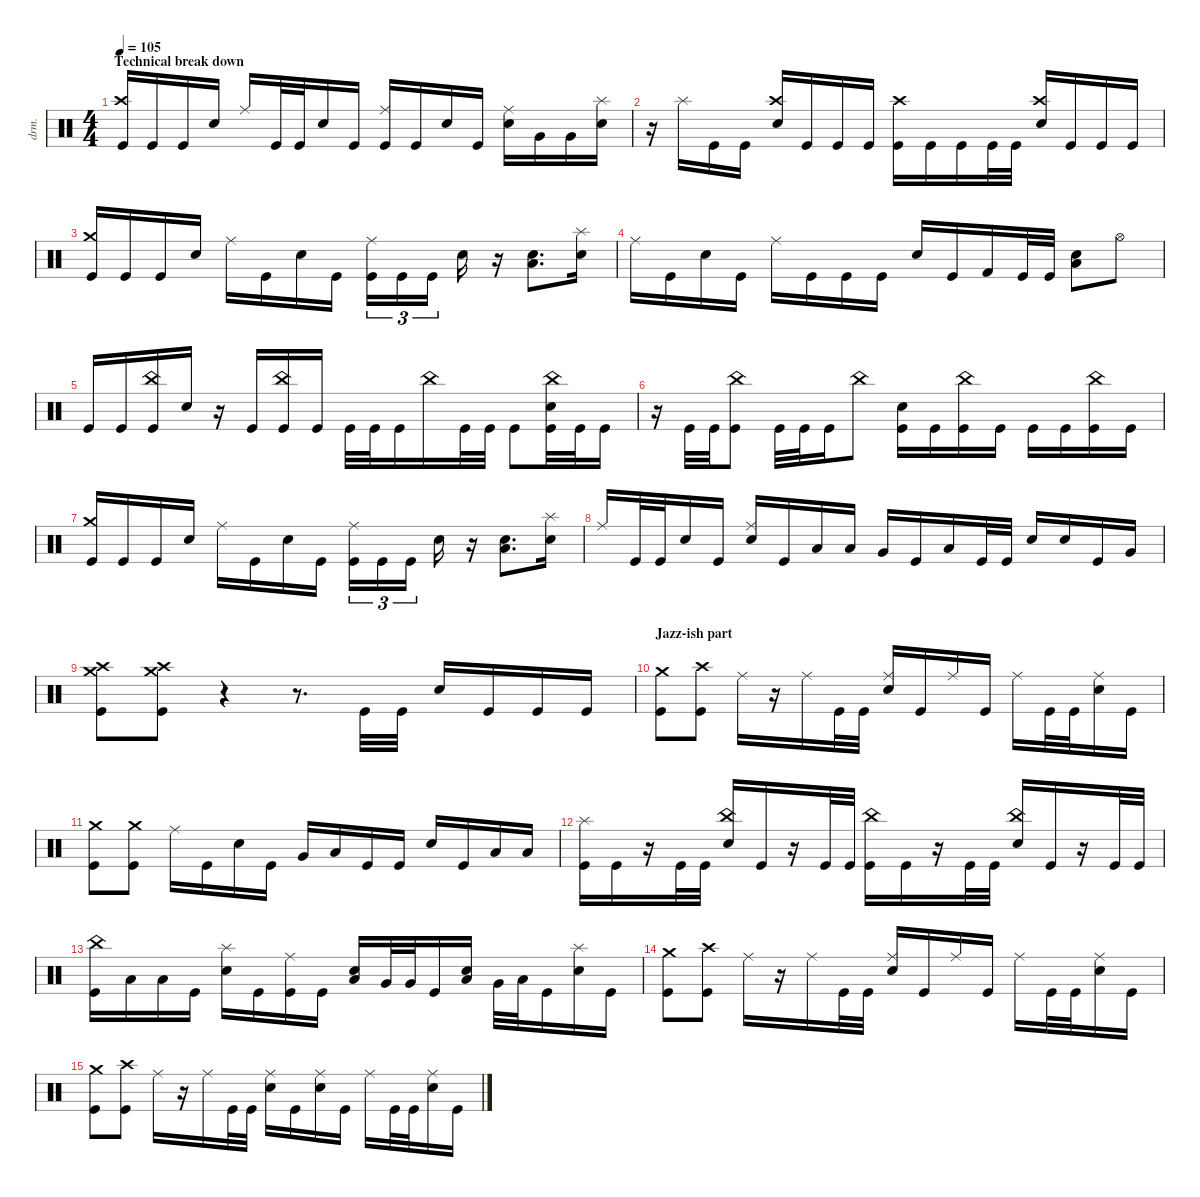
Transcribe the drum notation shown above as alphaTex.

\defaultSystemsLayout 4
\hideDynamics
\bracketExtendMode nobrackets
\otherSystemsTrackNameOrientation horizontal
\track ("Drumkit" "drm.") {mute instrument percussion}
\staff {score}
\articulation defaults
\ts (4 4)
\section ("" "Technical break down")
\tempo 105
\clef neutral
\ks c
("Crash high (hit)" "Kick (hit)").16{dy mf beam Up} "Kick (hit)".16{beam Up} "Kick (hit)".16{beam Up} "Electric Snare (hit)".16{beam Up} "Ride (middle)".16{beam Up} "Kick (hit)".32{beam Up} "Kick (hit)".32{beam Up} "Electric Snare (hit)".16{beam Up} "Kick (hit)".16{beam Up} ("Kick (hit)" "Ride (middle)").16{beam Up} "Kick (hit)".16{beam Up} "Electric Snare (hit)".16{beam Up} "Kick (hit)".16{beam Up} ("Electric Snare (hit)" "Ride (middle)").16{beam Down} "Very Low Tom (hit)".16{beam Down} "Very Low Tom (hit)".16{beam Down} ("Splash (hit)" "Electric Snare (hit)").16{beam Down} |
r.16{beam Down} "Splash (hit)".16{beam Down} "Kick (hit)".16{beam Down} "Kick (hit)".16{beam Down} ("Crash high (hit)" "Electric Snare (hit)").16{beam Up} "Kick (hit)".16{beam Up} "Kick (hit)".16{beam Up} "Kick (hit)".16{beam Up} ("Crash high (hit)" "Kick (hit)").16{beam Down} "Kick (hit)".16{beam Down} "Kick (hit)".16{beam Down} "Kick (hit)".32{beam Down} "Kick (hit)".32{beam Down} ("Crash high (hit)" "Electric Snare (hit)").16{beam Up} "Kick (hit)".16{beam Up} "Kick (hit)".16{beam Up} "Kick (hit)".16{beam Up} |
("Crash medium (hit)" "Kick (hit)").16{beam Up} "Kick (hit)".16{beam Up} "Kick (hit)".16{beam Up} "Electric Snare (hit)".16{beam Up} "Ride (middle)".16{beam Down} "Kick (hit)".16{beam Down} "Electric Snare (hit)".16{beam Down} "Kick (hit)".16{beam Down} ("Ride (middle)" "Kick (hit)").16{tu (3 2) beam Down} "Kick (hit)".16{tu (3 2) beam Down} "Kick (hit)".16{tu (3 2) beam Down} "Electric Snare (hit)".16{beam Down} r.16{beam Down} ("Electric Snare (hit)" "Low Floor Tom (hit)").8{d beam Down} ("Splash (hit)" "Electric Snare (hit)").16{beam Down} |
"Ride (middle)".16{beam Down} "Kick (hit)".16{beam Down} "Electric Snare (hit)".16{beam Down} "Kick (hit)".16{beam Down} "Ride (middle)".16{beam Down} "Kick (hit)".16{beam Down} "Kick (hit)".16{beam Down} "Kick (hit)".16{beam Down} "Electric Snare (hit)".16{beam Up} "Kick (hit)".16{beam Up} "Kick (hit) 2".16{beam Up} "Kick (hit)".32{beam Up} "Kick (hit)".32{beam Up} ("Electric Snare (hit)" "Low Floor Tom (hit)").8{beam Down} "Hi-Hat (open)".8{beam Down} |
"Kick (hit)".16{beam Up} "Kick (hit)".16{beam Up} ("Kick (hit)" "China (hit)").16{beam Up} "Electric Snare (hit)".16{beam Up} r.16{beam Up} "Kick (hit)".16{beam Down} ("Kick (hit)" "China (hit)").16{beam Down} "Kick (hit)".16{beam Down} "Kick (hit)".32{beam Down} "Kick (hit)".32{beam Down} "Kick (hit)".16{beam Down} "China (hit)".16{beam Down} "Kick (hit)".32{beam Down} "Kick (hit)".32{beam Down} "Kick (hit)".8{beam Down} ("Kick (hit)" "China (hit)" "Electric Snare (hit)").32{beam Down} "Kick (hit)".32{beam Down} "Kick (hit)".16{beam Down} |
r.16{beam Down} "Kick (hit)".32{beam Down} "Kick (hit)".32{beam Down} ("Kick (hit)" "China (hit)").8{beam Down} "Kick (hit)".32{beam Down} "Kick (hit)".32{beam Down} "Kick (hit)".16{beam Down} "China (hit)".8{beam Down} ("Kick (hit)" "Electric Snare (hit)").16{beam Down} "Kick (hit)".16{beam Down} ("Kick (hit)" "China (hit)").16{beam Down} "Kick (hit)".16{beam Down} "Kick (hit)".16{beam Down} "Kick (hit)".16{beam Down} ("Kick (hit)" "China (hit)").16{beam Down} "Kick (hit)".16{beam Down} |
("Crash medium (hit)" "Kick (hit)").16{beam Up} "Kick (hit)".16{beam Up} "Kick (hit)".16{beam Up} "Electric Snare (hit)".16{beam Up} "Ride (middle)".16{beam Down} "Kick (hit)".16{beam Down} "Electric Snare (hit)".16{beam Down} "Kick (hit)".16{beam Down} ("Ride (middle)" "Kick (hit)").16{tu (3 2) beam Down} "Kick (hit)".16{tu (3 2) beam Down} "Kick (hit)".16{tu (3 2) beam Down} "Electric Snare (hit)".16{beam Down} r.16{beam Down} ("Electric Snare (hit)" "Low Floor Tom (hit)").8{d beam Down} ("Splash (hit)" "Electric Snare (hit)").16{beam Down} |
"Ride (middle)".16{beam Up} "Kick (hit)".32{beam Up} "Kick (hit)".32{beam Up} "Electric Snare (hit)".16{beam Up} "Kick (hit)".16{beam Up} ("Ride (middle)" "Electric Snare (hit)").16{beam Up} "Kick (hit)".16{beam Up} "Low Tom (hit)".16{beam Up} "Low Tom (hit)".16{beam Up} "Very Low Tom (hit)".16{beam Up} "Kick (hit)".16{beam Up} "Low Floor Tom (hit)".16{beam Up} "Kick (hit)".32{beam Up} "Kick (hit)".32{beam Up} "Electric Snare (hit)".16{beam Up} "Electric Snare (hit)".16{beam Up} "Kick (hit)".16{beam Up} "Very Low Tom (hit)".16{beam Up} |
("Crash high (hit)" "Crash medium (hit)" "Kick (hit)").8{beam Down} ("Crash high (hit)" "Crash medium (hit)" "Kick (hit)").8{beam Down} r.4{beam Down} r.8{d beam Down} "Kick (hit)".32{beam Up} "Kick (hit)".32{beam Up} "Electric Snare (hit)".16{beam Up} "Kick (hit)".16{beam Up} "Kick (hit)".16{beam Up} "Kick (hit)".16{beam Up} |
\section ("" "Jazz-ish part")
("Crash medium (hit)" "Kick (hit)").8{beam Down} ("Kick (hit)" "Crash high (hit)").8{beam Down} "Ride (middle)".16{beam Down} r.16{beam Down} "Ride (middle)".16{beam Down} "Kick (hit)".32{beam Down} "Kick (hit)".32{beam Down} ("Ride (middle)" "Electric Snare (hit)").16{beam Up} "Kick (hit)".16{beam Up} "Ride (middle)".16{beam Up} "Kick (hit)".16{beam Up} "Ride (middle)".16{beam Down} "Kick (hit)".32{beam Down} "Kick (hit)".32{beam Down} ("Ride (middle)" "Electric Snare (hit)").16{beam Down} "Kick (hit)".16{beam Down} |
("Crash medium (hit)" "Kick (hit)").8{beam Down} ("Kick (hit)" "Crash medium (hit)").8{beam Down} "Ride (middle)".16{beam Down} "Kick (hit)".16{beam Down} "Electric Snare (hit)".16{beam Down} "Kick (hit)".16{beam Down} "Very Low Tom (hit)".16{beam Up} "Low Tom (hit)".16{beam Up} "Kick (hit)".16{beam Up} "Kick (hit)".16{beam Up} "Electric Snare (hit)".16{beam Up} "Kick (hit)".16{beam Up} "Low Floor Tom (hit)".16{beam Up} "Low Floor Tom (hit)".16{beam Up} |
("Splash (hit)" "Kick (hit)").16{beam Down} "Kick (hit)".16{beam Down} r.16{beam Down} "Kick (hit)".32{beam Down} "Kick (hit)".32{beam Down} ("Electric Snare (hit)" "China (hit)").16{beam Up} "Kick (hit)".16{beam Up} r.16{beam Up} "Kick (hit)".32{beam Up} "Kick (hit)".32{beam Up} ("Kick (hit)" "China (hit)").16{beam Down} "Kick (hit)".16{beam Down} r.16{beam Down} "Kick (hit)".32{beam Down} "Kick (hit)".32{beam Down} ("China (hit)" "Electric Snare (hit)").16{beam Up} "Kick (hit)".16{beam Up} r.16{beam Up} "Kick (hit)".32{beam Up} "Kick (hit)".32{beam Up} |
("China (hit)" "Kick (hit)").16{beam Down} "Low Tom (hit)".16{beam Down} "Low Tom (hit)".16{beam Down} "Kick (hit)".16{beam Down} ("Splash (hit)" "Electric Snare (hit)").16{beam Down} "Kick (hit)".16{beam Down} ("Kick (hit)" "Ride (middle)").16{beam Down} "Kick (hit)".16{beam Down} ("Electric Snare (hit)" "Low Floor Tom (hit)").16{beam Up} "Very Low Tom (hit)".32{beam Up} "Very Low Tom (hit)".32{beam Up} "Kick (hit)".16{beam Up} ("Electric Snare (hit)" "Low Floor Tom (hit)").16{beam Up} "Very Low Tom (hit)".32{beam Down} "Low Tom (hit)".32{beam Down} "Kick (hit)".16{beam Down} ("Electric Snare (hit)" "Splash (hit)").16{beam Down} "Kick (hit)".16{beam Down} |
("Crash medium (hit)" "Kick (hit)").8{beam Down} ("Kick (hit)" "Crash high (hit)").8{beam Down} "Ride (middle)".16{beam Down} r.16{beam Down} "Ride (middle)".16{beam Down} "Kick (hit)".32{beam Down} "Kick (hit)".32{beam Down} ("Ride (middle)" "Electric Snare (hit)").16{beam Up} "Kick (hit)".16{beam Up} "Ride (middle)".16{beam Up} "Kick (hit)".16{beam Up} "Ride (middle)".16{beam Down} "Kick (hit)".32{beam Down} "Kick (hit)".32{beam Down} ("Ride (middle)" "Electric Snare (hit)").16{beam Down} "Kick (hit)".16{beam Down} |
("Crash medium (hit)" "Kick (hit)").8{beam Down} ("Kick (hit)" "Crash high (hit)").8{beam Down} "Ride (middle)".16{beam Down} r.16{beam Down} "Ride (middle)".16{beam Down} "Kick (hit)".32{beam Down} "Kick (hit)".32{beam Down} ("Ride (middle)" "Electric Snare (hit)").16{beam Down} "Kick (hit)".16{beam Down} ("Ride (middle)" "Electric Snare (hit)").16{beam Down} "Kick (hit)".16{beam Down} "Ride (middle)".16{beam Down} "Kick (hit)".32{beam Down} "Kick (hit)".32{beam Down} ("Ride (middle)" "Electric Snare (hit)").16{beam Down} "Kick (hit)".16{beam Down}
